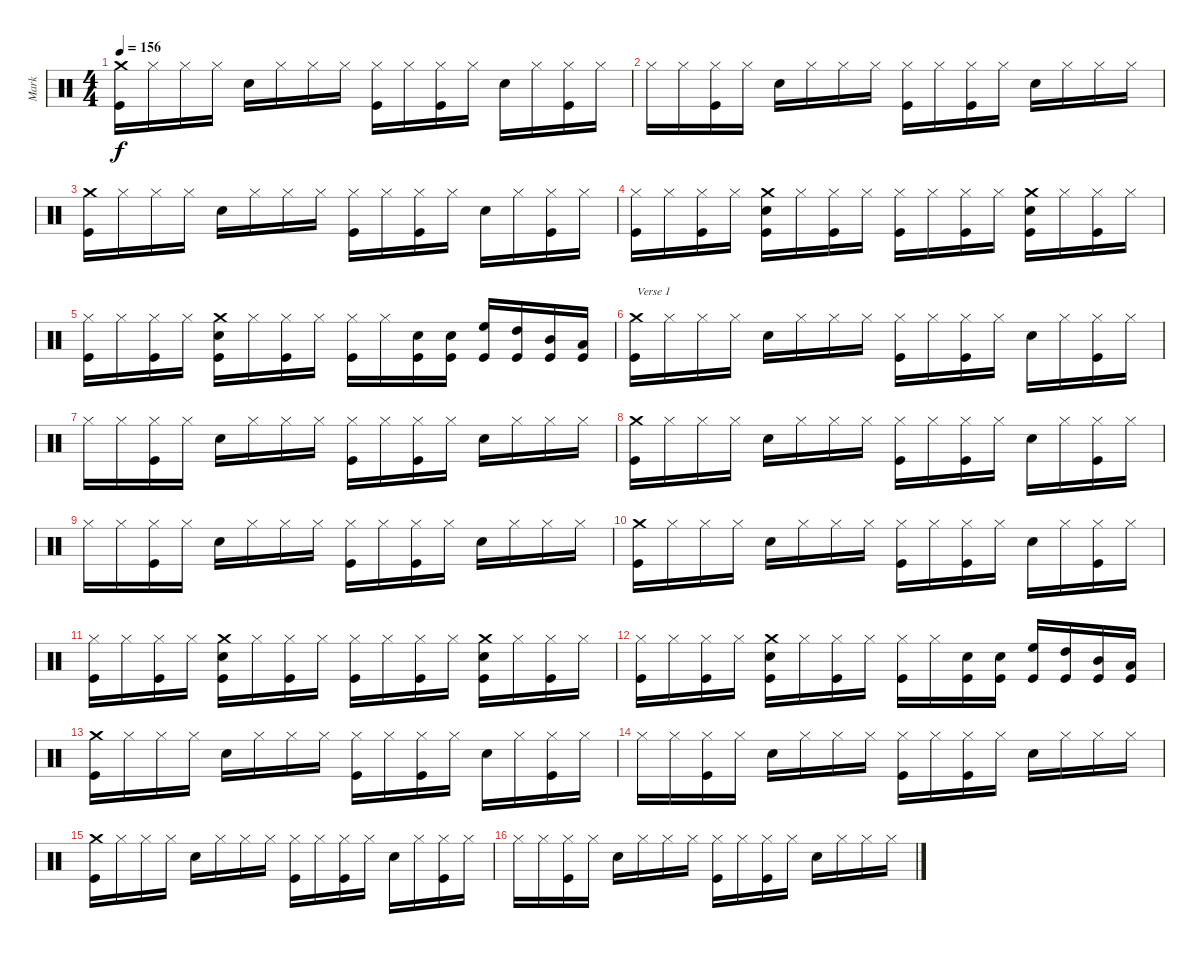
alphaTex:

\track ("Mark" "Mark") {instrument percussion}
\staff {score}
\articulation defaults
\ts (4 4)
\tempo 156
\clef neutral
\ks c
("Kick (hit)" "Crash medium (hit)").16{dy f} "Hi-Hat (closed)".16 "Hi-Hat (closed)".16 "Hi-Hat (closed)".16 "Snare (hit) 2".16 "Hi-Hat (closed)".16 "Hi-Hat (closed)".16 "Hi-Hat (closed)".16 ("Kick (hit)" "Hi-Hat (closed)").16 "Hi-Hat (closed)".16 ("Kick (hit)" "Hi-Hat (closed)").16 "Hi-Hat (closed)".16 "Snare (hit) 2".16 "Hi-Hat (closed)".16 ("Kick (hit)" "Hi-Hat (closed)").16 "Hi-Hat (closed)".16 |
"Hi-Hat (closed)".16 "Hi-Hat (closed)".16 ("Kick (hit)" "Hi-Hat (closed)").16 "Hi-Hat (closed)".16 "Snare (hit) 2".16 "Hi-Hat (closed)".16 "Hi-Hat (closed)".16 "Hi-Hat (closed)".16 ("Kick (hit)" "Hi-Hat (closed)").16 "Hi-Hat (closed)".16 ("Kick (hit)" "Hi-Hat (closed)").16 "Hi-Hat (closed)".16 "Snare (hit) 2".16 "Hi-Hat (closed)".16 "Hi-Hat (closed)".16 "Hi-Hat (closed)".16 |
("Kick (hit)" "Crash medium (hit)").16 "Hi-Hat (closed)".16 "Hi-Hat (closed)".16 "Hi-Hat (closed)".16 "Snare (hit) 2".16 "Hi-Hat (closed)".16 "Hi-Hat (closed)".16 "Hi-Hat (closed)".16 ("Kick (hit)" "Hi-Hat (closed)").16 "Hi-Hat (closed)".16 ("Kick (hit)" "Hi-Hat (closed)").16 "Hi-Hat (closed)".16 "Snare (hit) 2".16 "Hi-Hat (closed)".16 ("Kick (hit)" "Hi-Hat (closed)").16 "Hi-Hat (closed)".16 |
("Kick (hit)" "Hi-Hat (closed)").16 "Hi-Hat (closed)".16 ("Kick (hit)" "Hi-Hat (closed)").16 "Hi-Hat (closed)".16 ("Kick (hit)" "Snare (hit) 2" "Crash medium (hit)").16 "Hi-Hat (closed)".16 ("Kick (hit)" "Hi-Hat (closed)").16 "Hi-Hat (closed)".16 ("Kick (hit)" "Hi-Hat (closed)").16 "Hi-Hat (closed)".16 ("Kick (hit)" "Hi-Hat (closed)").16 "Hi-Hat (closed)".16 ("Kick (hit)" "Snare (hit) 2" "Crash medium (hit)").16 "Hi-Hat (closed)".16 ("Kick (hit)" "Hi-Hat (closed)").16 "Hi-Hat (closed)".16 |
("Kick (hit)" "Hi-Hat (closed)").16 "Hi-Hat (closed)".16 ("Kick (hit)" "Hi-Hat (closed)").16 "Hi-Hat (closed)".16 ("Kick (hit)" "Snare (hit) 2" "Crash medium (hit)").16 "Hi-Hat (closed)".16 ("Kick (hit)" "Hi-Hat (closed)").16 "Hi-Hat (closed)".16 ("Kick (hit)" "Hi-Hat (closed)").16 "Hi-Hat (closed)".16 ("Snare (hit) 2" "Kick (hit)").16 ("Snare (hit) 2" "Kick (hit)").16 ("High Floor Tom (hit)" "Kick (hit)").16 ("High Tom (hit)" "Kick (hit)").16 ("Mid Tom (hit)" "Kick (hit)").16 ("Low Tom (hit)" "Kick (hit)").16 |
("Kick (hit)" "Crash medium (hit)").16{txt "Verse 1"} "Hi-Hat (closed)".16 "Hi-Hat (closed)".16 "Hi-Hat (closed)".16 "Snare (hit) 2".16 "Hi-Hat (closed)".16 "Hi-Hat (closed)".16 "Hi-Hat (closed)".16 ("Kick (hit)" "Hi-Hat (closed)").16 "Hi-Hat (closed)".16 ("Kick (hit)" "Hi-Hat (closed)").16 "Hi-Hat (closed)".16 "Snare (hit) 2".16 "Hi-Hat (closed)".16 ("Kick (hit)" "Hi-Hat (closed)").16 "Hi-Hat (closed)".16 |
"Hi-Hat (closed)".16 "Hi-Hat (closed)".16 ("Kick (hit)" "Hi-Hat (closed)").16 "Hi-Hat (closed)".16 "Snare (hit) 2".16 "Hi-Hat (closed)".16 "Hi-Hat (closed)".16 "Hi-Hat (closed)".16 ("Kick (hit)" "Hi-Hat (closed)").16 "Hi-Hat (closed)".16 ("Kick (hit)" "Hi-Hat (closed)").16 "Hi-Hat (closed)".16 "Snare (hit) 2".16 "Hi-Hat (closed)".16 "Hi-Hat (closed)".16 "Hi-Hat (closed)".16 |
("Kick (hit)" "Crash medium (hit)").16 "Hi-Hat (closed)".16 "Hi-Hat (closed)".16 "Hi-Hat (closed)".16 "Snare (hit) 2".16 "Hi-Hat (closed)".16 "Hi-Hat (closed)".16 "Hi-Hat (closed)".16 ("Kick (hit)" "Hi-Hat (closed)").16 "Hi-Hat (closed)".16 ("Kick (hit)" "Hi-Hat (closed)").16 "Hi-Hat (closed)".16 "Snare (hit) 2".16 "Hi-Hat (closed)".16 ("Kick (hit)" "Hi-Hat (closed)").16 "Hi-Hat (closed)".16 |
"Hi-Hat (closed)".16 "Hi-Hat (closed)".16 ("Kick (hit)" "Hi-Hat (closed)").16 "Hi-Hat (closed)".16 "Snare (hit) 2".16 "Hi-Hat (closed)".16 "Hi-Hat (closed)".16 "Hi-Hat (closed)".16 ("Kick (hit)" "Hi-Hat (closed)").16 "Hi-Hat (closed)".16 ("Kick (hit)" "Hi-Hat (closed)").16 "Hi-Hat (closed)".16 "Snare (hit) 2".16 "Hi-Hat (closed)".16 "Hi-Hat (closed)".16 "Hi-Hat (closed)".16 |
("Kick (hit)" "Crash medium (hit)").16 "Hi-Hat (closed)".16 "Hi-Hat (closed)".16 "Hi-Hat (closed)".16 "Snare (hit) 2".16 "Hi-Hat (closed)".16 "Hi-Hat (closed)".16 "Hi-Hat (closed)".16 ("Kick (hit)" "Hi-Hat (closed)").16 "Hi-Hat (closed)".16 ("Kick (hit)" "Hi-Hat (closed)").16 "Hi-Hat (closed)".16 "Snare (hit) 2".16 "Hi-Hat (closed)".16 ("Kick (hit)" "Hi-Hat (closed)").16 "Hi-Hat (closed)".16 |
("Kick (hit)" "Hi-Hat (closed)").16 "Hi-Hat (closed)".16 ("Kick (hit)" "Hi-Hat (closed)").16 "Hi-Hat (closed)".16 ("Kick (hit)" "Snare (hit) 2" "Crash medium (hit)").16 "Hi-Hat (closed)".16 ("Kick (hit)" "Hi-Hat (closed)").16 "Hi-Hat (closed)".16 ("Kick (hit)" "Hi-Hat (closed)").16 "Hi-Hat (closed)".16 ("Kick (hit)" "Hi-Hat (closed)").16 "Hi-Hat (closed)".16 ("Kick (hit)" "Snare (hit) 2" "Crash medium (hit)").16 "Hi-Hat (closed)".16 ("Kick (hit)" "Hi-Hat (closed)").16 "Hi-Hat (closed)".16 |
("Kick (hit)" "Hi-Hat (closed)").16 "Hi-Hat (closed)".16 ("Kick (hit)" "Hi-Hat (closed)").16 "Hi-Hat (closed)".16 ("Kick (hit)" "Snare (hit) 2" "Crash medium (hit)").16 "Hi-Hat (closed)".16 ("Kick (hit)" "Hi-Hat (closed)").16 "Hi-Hat (closed)".16 ("Kick (hit)" "Hi-Hat (closed)").16 "Hi-Hat (closed)".16 ("Snare (hit) 2" "Kick (hit)").16 ("Snare (hit) 2" "Kick (hit)").16 ("High Floor Tom (hit)" "Kick (hit)").16 ("High Tom (hit)" "Kick (hit)").16 ("Mid Tom (hit)" "Kick (hit)").16 ("Low Tom (hit)" "Kick (hit)").16 |
("Kick (hit)" "Crash medium (hit)").16 "Hi-Hat (closed)".16 "Hi-Hat (closed)".16 "Hi-Hat (closed)".16 "Snare (hit) 2".16 "Hi-Hat (closed)".16 "Hi-Hat (closed)".16 "Hi-Hat (closed)".16 ("Kick (hit)" "Hi-Hat (closed)").16 "Hi-Hat (closed)".16 ("Kick (hit)" "Hi-Hat (closed)").16 "Hi-Hat (closed)".16 "Snare (hit) 2".16 "Hi-Hat (closed)".16 ("Kick (hit)" "Hi-Hat (closed)").16 "Hi-Hat (closed)".16 |
"Hi-Hat (closed)".16 "Hi-Hat (closed)".16 ("Kick (hit)" "Hi-Hat (closed)").16 "Hi-Hat (closed)".16 "Snare (hit) 2".16 "Hi-Hat (closed)".16 "Hi-Hat (closed)".16 "Hi-Hat (closed)".16 ("Kick (hit)" "Hi-Hat (closed)").16 "Hi-Hat (closed)".16 ("Kick (hit)" "Hi-Hat (closed)").16 "Hi-Hat (closed)".16 "Snare (hit) 2".16 "Hi-Hat (closed)".16 "Hi-Hat (closed)".16 "Hi-Hat (closed)".16 |
("Kick (hit)" "Crash medium (hit)").16 "Hi-Hat (closed)".16 "Hi-Hat (closed)".16 "Hi-Hat (closed)".16 "Snare (hit) 2".16 "Hi-Hat (closed)".16 "Hi-Hat (closed)".16 "Hi-Hat (closed)".16 ("Kick (hit)" "Hi-Hat (closed)").16 "Hi-Hat (closed)".16 ("Kick (hit)" "Hi-Hat (closed)").16 "Hi-Hat (closed)".16 "Snare (hit) 2".16 "Hi-Hat (closed)".16 ("Kick (hit)" "Hi-Hat (closed)").16 "Hi-Hat (closed)".16 |
"Hi-Hat (closed)".16 "Hi-Hat (closed)".16 ("Kick (hit)" "Hi-Hat (closed)").16 "Hi-Hat (closed)".16 "Snare (hit) 2".16 "Hi-Hat (closed)".16 "Hi-Hat (closed)".16 "Hi-Hat (closed)".16 ("Kick (hit)" "Hi-Hat (closed)").16 "Hi-Hat (closed)".16 ("Kick (hit)" "Hi-Hat (closed)").16 "Hi-Hat (closed)".16 "Snare (hit) 2".16 "Hi-Hat (closed)".16 "Hi-Hat (closed)".16 "Hi-Hat (closed)".16
